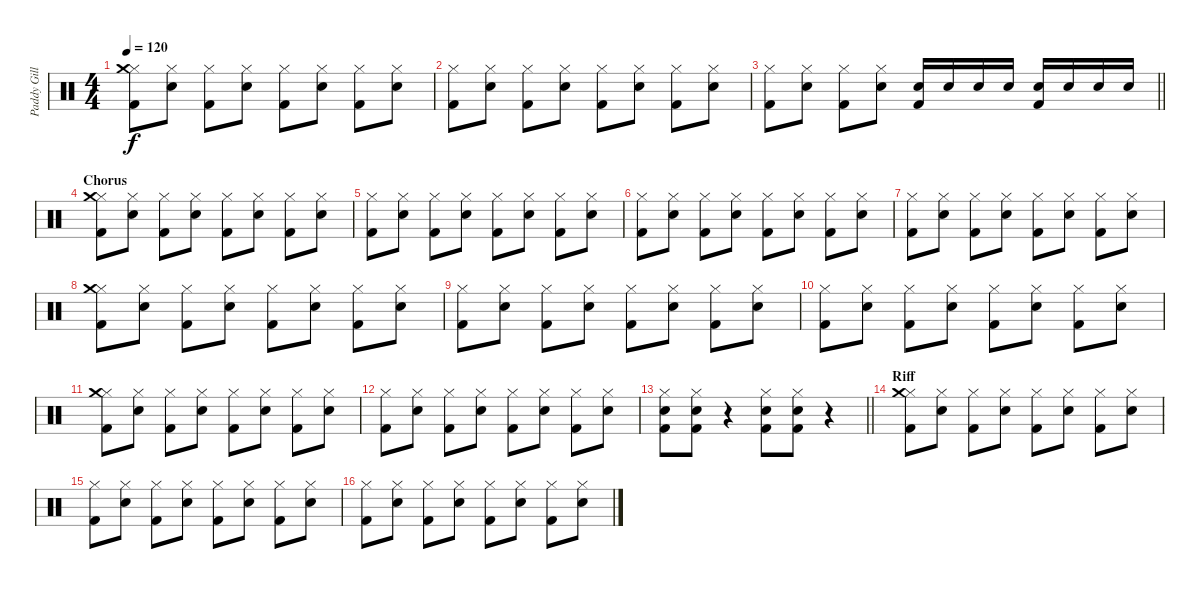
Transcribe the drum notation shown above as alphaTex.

\track ("Paddy Gillespie" "Paddy Gill") {instrument percussion}
\staff {score}
\articulation defaults
\ts (4 4)
\tempo 120
\clef neutral
\ks c
("Hi-Hat (closed)" "Kick (hit) 2" "Crash medium (hit)").8{dy f} ("Hi-Hat (closed)" "Snare (hit) 2").8 ("Hi-Hat (closed)" "Kick (hit) 2").8 ("Hi-Hat (closed)" "Snare (hit) 2").8 ("Hi-Hat (closed)" "Kick (hit) 2").8 ("Hi-Hat (closed)" "Snare (hit) 2").8 ("Hi-Hat (closed)" "Kick (hit) 2").8 ("Hi-Hat (closed)" "Snare (hit) 2").8 |
("Hi-Hat (closed)" "Kick (hit) 2").8 ("Hi-Hat (closed)" "Snare (hit) 2").8 ("Hi-Hat (closed)" "Kick (hit) 2").8 ("Hi-Hat (closed)" "Snare (hit) 2").8 ("Hi-Hat (closed)" "Kick (hit) 2").8 ("Hi-Hat (closed)" "Snare (hit) 2").8 ("Hi-Hat (closed)" "Kick (hit) 2").8 ("Hi-Hat (closed)" "Snare (hit) 2").8 |
\barLineRight lightlight
("Hi-Hat (closed)" "Kick (hit) 2").8 ("Hi-Hat (closed)" "Snare (hit) 2").8 ("Hi-Hat (closed)" "Kick (hit) 2").8 ("Hi-Hat (closed)" "Snare (hit) 2").8 ("Snare (hit) 2" "Kick (hit) 2").16 "Snare (hit) 2".16 "Snare (hit) 2".16 "Snare (hit) 2".16 ("Snare (hit) 2" "Kick (hit) 2").16 "Snare (hit) 2".16 "Snare (hit) 2".16 "Snare (hit) 2".16 |
\section ("" "Chorus")
("Hi-Hat (closed)" "Kick (hit) 2" "Crash medium (hit)").8 ("Hi-Hat (closed)" "Snare (hit) 2").8 ("Hi-Hat (closed)" "Kick (hit) 2").8 ("Hi-Hat (closed)" "Snare (hit) 2").8 ("Hi-Hat (closed)" "Kick (hit) 2").8 ("Hi-Hat (closed)" "Snare (hit) 2").8 ("Hi-Hat (closed)" "Kick (hit) 2").8 ("Hi-Hat (closed)" "Snare (hit) 2").8 |
("Hi-Hat (closed)" "Kick (hit) 2").8 ("Hi-Hat (closed)" "Snare (hit) 2").8 ("Hi-Hat (closed)" "Kick (hit) 2").8 ("Hi-Hat (closed)" "Snare (hit) 2").8 ("Hi-Hat (closed)" "Kick (hit) 2").8 ("Hi-Hat (closed)" "Snare (hit) 2").8 ("Hi-Hat (closed)" "Kick (hit) 2").8 ("Hi-Hat (closed)" "Snare (hit) 2").8 |
("Hi-Hat (closed)" "Kick (hit) 2").8 ("Hi-Hat (closed)" "Snare (hit) 2").8 ("Hi-Hat (closed)" "Kick (hit) 2").8 ("Hi-Hat (closed)" "Snare (hit) 2").8 ("Hi-Hat (closed)" "Kick (hit) 2").8 ("Hi-Hat (closed)" "Snare (hit) 2").8 ("Hi-Hat (closed)" "Kick (hit) 2").8 ("Hi-Hat (closed)" "Snare (hit) 2").8 |
("Hi-Hat (closed)" "Kick (hit) 2").8 ("Hi-Hat (closed)" "Snare (hit) 2").8 ("Hi-Hat (closed)" "Kick (hit) 2").8 ("Hi-Hat (closed)" "Snare (hit) 2").8 ("Hi-Hat (closed)" "Kick (hit) 2").8 ("Hi-Hat (closed)" "Snare (hit) 2").8 ("Hi-Hat (closed)" "Kick (hit) 2").8 ("Hi-Hat (closed)" "Snare (hit) 2").8 |
("Hi-Hat (closed)" "Kick (hit) 2" "Crash medium (hit)").8 ("Hi-Hat (closed)" "Snare (hit) 2").8 ("Hi-Hat (closed)" "Kick (hit) 2").8 ("Hi-Hat (closed)" "Snare (hit) 2").8 ("Hi-Hat (closed)" "Kick (hit) 2").8 ("Hi-Hat (closed)" "Snare (hit) 2").8 ("Hi-Hat (closed)" "Kick (hit) 2").8 ("Hi-Hat (closed)" "Snare (hit) 2").8 |
("Hi-Hat (closed)" "Kick (hit) 2").8 ("Hi-Hat (closed)" "Snare (hit) 2").8 ("Hi-Hat (closed)" "Kick (hit) 2").8 ("Hi-Hat (closed)" "Snare (hit) 2").8 ("Hi-Hat (closed)" "Kick (hit) 2").8 ("Hi-Hat (closed)" "Snare (hit) 2").8 ("Hi-Hat (closed)" "Kick (hit) 2").8 ("Hi-Hat (closed)" "Snare (hit) 2").8 |
("Hi-Hat (closed)" "Kick (hit) 2").8 ("Hi-Hat (closed)" "Snare (hit) 2").8 ("Hi-Hat (closed)" "Kick (hit) 2").8 ("Hi-Hat (closed)" "Snare (hit) 2").8 ("Hi-Hat (closed)" "Kick (hit) 2").8 ("Hi-Hat (closed)" "Snare (hit) 2").8 ("Hi-Hat (closed)" "Kick (hit) 2").8 ("Hi-Hat (closed)" "Snare (hit) 2").8 |
("Hi-Hat (closed)" "Kick (hit) 2" "Crash medium (hit)").8 ("Hi-Hat (closed)" "Snare (hit) 2").8 ("Hi-Hat (closed)" "Kick (hit) 2").8 ("Hi-Hat (closed)" "Snare (hit) 2").8 ("Hi-Hat (closed)" "Kick (hit) 2").8 ("Hi-Hat (closed)" "Snare (hit) 2").8 ("Hi-Hat (closed)" "Kick (hit) 2").8 ("Hi-Hat (closed)" "Snare (hit) 2").8 |
("Hi-Hat (closed)" "Kick (hit) 2").8 ("Hi-Hat (closed)" "Snare (hit) 2").8 ("Hi-Hat (closed)" "Kick (hit) 2").8 ("Hi-Hat (closed)" "Snare (hit) 2").8 ("Hi-Hat (closed)" "Kick (hit) 2").8 ("Hi-Hat (closed)" "Snare (hit) 2").8 ("Hi-Hat (closed)" "Kick (hit) 2").8 ("Hi-Hat (closed)" "Snare (hit) 2").8 |
\barLineRight lightlight
("Hi-Hat (closed)" "Snare (hit) 2" "Kick (hit) 2").8 ("Hi-Hat (closed)" "Snare (hit) 2" "Kick (hit) 2").8 r.4 ("Hi-Hat (closed)" "Snare (hit) 2" "Kick (hit) 2").8 ("Hi-Hat (closed)" "Snare (hit) 2" "Kick (hit) 2").8 r.4 |
\section ("" "Riff")
("Hi-Hat (closed)" "Kick (hit) 2" "Crash medium (hit)").8 ("Hi-Hat (closed)" "Snare (hit) 2").8 ("Hi-Hat (closed)" "Kick (hit) 2").8 ("Hi-Hat (closed)" "Snare (hit) 2").8 ("Hi-Hat (closed)" "Kick (hit) 2").8 ("Hi-Hat (closed)" "Snare (hit) 2").8 ("Hi-Hat (closed)" "Kick (hit) 2").8 ("Hi-Hat (closed)" "Snare (hit) 2").8 |
("Hi-Hat (closed)" "Kick (hit) 2").8 ("Hi-Hat (closed)" "Snare (hit) 2").8 ("Hi-Hat (closed)" "Kick (hit) 2").8 ("Hi-Hat (closed)" "Snare (hit) 2").8 ("Hi-Hat (closed)" "Kick (hit) 2").8 ("Hi-Hat (closed)" "Snare (hit) 2").8 ("Hi-Hat (closed)" "Kick (hit) 2").8 ("Hi-Hat (closed)" "Snare (hit) 2").8 |
("Hi-Hat (closed)" "Kick (hit) 2").8 ("Hi-Hat (closed)" "Snare (hit) 2").8 ("Hi-Hat (closed)" "Kick (hit) 2").8 ("Hi-Hat (closed)" "Snare (hit) 2").8 ("Hi-Hat (closed)" "Kick (hit) 2").8 ("Hi-Hat (closed)" "Snare (hit) 2").8 ("Hi-Hat (closed)" "Kick (hit) 2").8 ("Hi-Hat (closed)" "Snare (hit) 2").8
